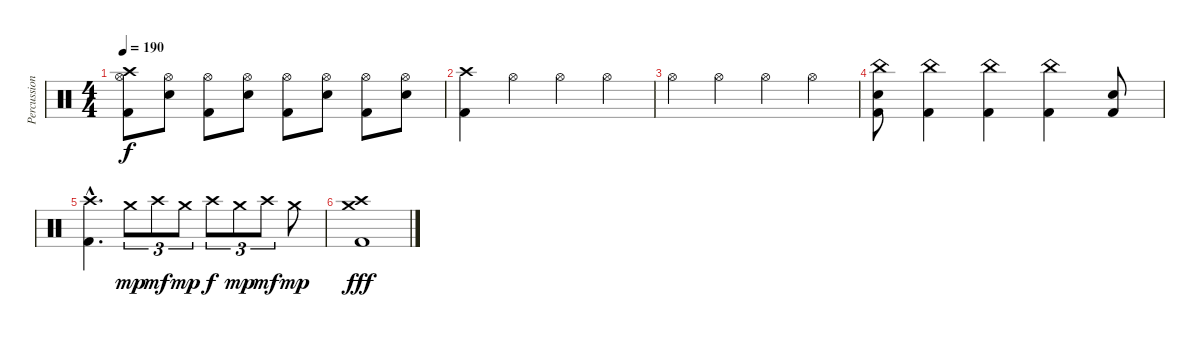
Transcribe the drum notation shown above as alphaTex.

\track ("Percussion" "Percussion") {instrument percussion}
\staff {score}
\articulation defaults
\ts (4 4)
\tempo 190
\clef neutral
\ks c
("Crash high (hit)" "Hi-Hat (open)" "Kick (hit) 2").8{dy f} ("Hi-Hat (open)" "Snare (hit) 2").8 ("Hi-Hat (open)" "Kick (hit) 2").8 ("Hi-Hat (open)" "Snare (hit) 2").8 ("Hi-Hat (open)" "Kick (hit) 2").8 ("Hi-Hat (open)" "Snare (hit) 2").8 ("Hi-Hat (open)" "Kick (hit) 2").8 ("Hi-Hat (open)" "Snare (hit) 2").8 |
("Crash high (hit)" "Kick (hit) 2").4 "Hi-Hat (open)".4 "Hi-Hat (open)".4 "Hi-Hat (open)".4 |
"Hi-Hat (open)".4 "Hi-Hat (open)".4 "Hi-Hat (open)".4 "Hi-Hat (open)".4 |
("China (hit)" "Snare (hit) 2" "Kick (hit) 2").8 ("China (hit)" "Kick (hit) 2").4 ("China (hit)" "Kick (hit) 2").4 ("China (hit)" "Kick (hit) 2").4 ("Snare (hit) 2" "Kick (hit) 2").8 |
("Crash high (hit)"{hac} "Kick (hit) 2"{hac}).4{d} "Crash medium (hit)".8{tu (3 2) dy mp} "Crash high (hit)".8{tu (3 2) dy mf} "Crash medium (hit)".8{tu (3 2) dy mp} "Crash high (hit)".8{tu (3 2) dy f} "Crash medium (hit)".8{tu (3 2) dy mp} "Crash high (hit)".8{tu (3 2) dy mf} "Crash medium (hit)".8{dy mp} |
("Crash high (hit)" "Crash medium (hit)" "Kick (hit) 2").1{dy fff}
